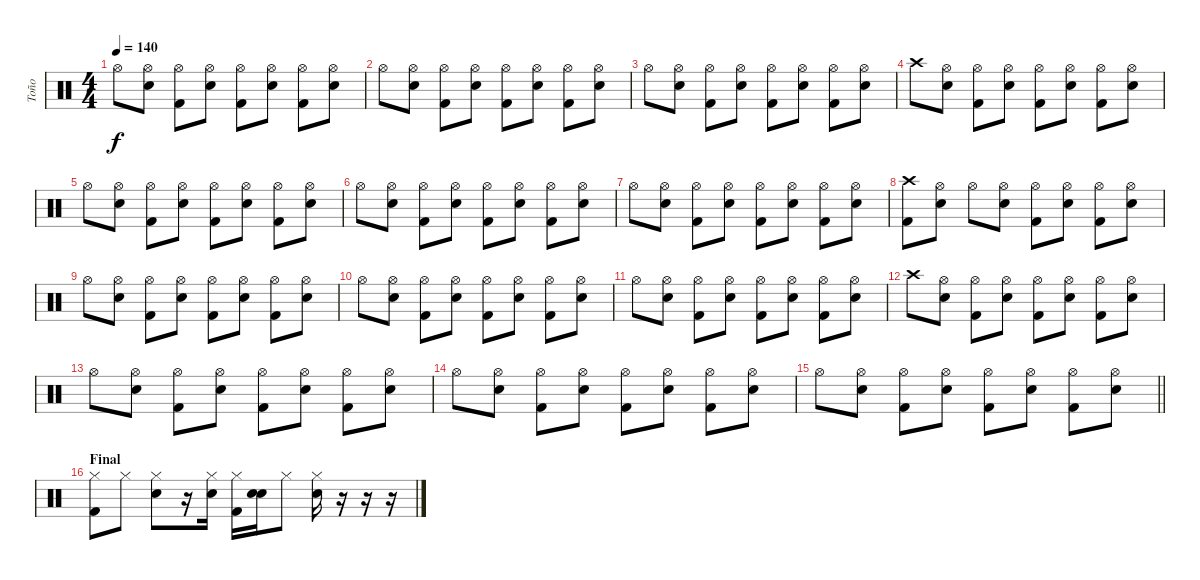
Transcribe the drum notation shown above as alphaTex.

\track ("Toño" "Toño") {instrument percussion}
\staff {score}
\articulation defaults
\ts (4 4)
\tempo 140
\clef neutral
\ks c "Hi-Hat (open)".8{dy f}
("Hi-Hat (open)" "Electric Snare (hit)").8 ("Hi-Hat (open)" "Kick (hit) 2").8 ("Hi-Hat (open)" "Electric Snare (hit)").8 ("Hi-Hat (open)" "Kick (hit) 2").8 ("Hi-Hat (open)" "Electric Snare (hit)").8 ("Hi-Hat (open)" "Kick (hit) 2").8 ("Hi-Hat (open)" "Electric Snare (hit)").8 |
"Hi-Hat (open)".8 ("Hi-Hat (open)" "Electric Snare (hit)").8 ("Hi-Hat (open)" "Kick (hit) 2").8 ("Hi-Hat (open)" "Electric Snare (hit)").8 ("Hi-Hat (open)" "Kick (hit) 2").8 ("Hi-Hat (open)" "Electric Snare (hit)").8 ("Hi-Hat (open)" "Kick (hit) 2").8 ("Hi-Hat (open)" "Electric Snare (hit)").8 |
"Hi-Hat (open)".8 ("Hi-Hat (open)" "Electric Snare (hit)").8 ("Hi-Hat (open)" "Kick (hit) 2").8 ("Hi-Hat (open)" "Electric Snare (hit)").8 ("Hi-Hat (open)" "Kick (hit) 2").8 ("Hi-Hat (open)" "Electric Snare (hit)").8 ("Hi-Hat (open)" "Kick (hit) 2").8 ("Hi-Hat (open)" "Electric Snare (hit)").8 |
"Crash high (hit)".8 ("Hi-Hat (open)" "Electric Snare (hit)").8 ("Hi-Hat (open)" "Kick (hit) 2").8 ("Hi-Hat (open)" "Electric Snare (hit)").8 ("Hi-Hat (open)" "Kick (hit) 2").8 ("Hi-Hat (open)" "Electric Snare (hit)").8 ("Hi-Hat (open)" "Kick (hit) 2").8 ("Hi-Hat (open)" "Electric Snare (hit)").8 |
"Hi-Hat (open)".8 ("Hi-Hat (open)" "Electric Snare (hit)").8 ("Hi-Hat (open)" "Kick (hit) 2").8 ("Hi-Hat (open)" "Electric Snare (hit)").8 ("Hi-Hat (open)" "Kick (hit) 2").8 ("Hi-Hat (open)" "Electric Snare (hit)").8 ("Hi-Hat (open)" "Kick (hit) 2").8 ("Hi-Hat (open)" "Electric Snare (hit)").8 |
"Hi-Hat (open)".8 ("Hi-Hat (open)" "Electric Snare (hit)").8 ("Hi-Hat (open)" "Kick (hit) 2").8 ("Hi-Hat (open)" "Electric Snare (hit)").8 ("Hi-Hat (open)" "Kick (hit) 2").8 ("Hi-Hat (open)" "Electric Snare (hit)").8 ("Hi-Hat (open)" "Kick (hit) 2").8 ("Hi-Hat (open)" "Electric Snare (hit)").8 |
"Hi-Hat (open)".8 ("Hi-Hat (open)" "Electric Snare (hit)").8 ("Hi-Hat (open)" "Kick (hit) 2").8 ("Hi-Hat (open)" "Electric Snare (hit)").8 ("Hi-Hat (open)" "Kick (hit) 2").8 ("Hi-Hat (open)" "Electric Snare (hit)").8 ("Hi-Hat (open)" "Kick (hit) 2").8 ("Hi-Hat (open)" "Electric Snare (hit)").8 |
("Crash high (hit)" "Kick (hit) 2").8 ("Hi-Hat (open)" "Electric Snare (hit)").8 "Hi-Hat (open)".8 ("Hi-Hat (open)" "Electric Snare (hit)").8 ("Hi-Hat (open)" "Kick (hit) 2").8 ("Hi-Hat (open)" "Electric Snare (hit)").8 ("Hi-Hat (open)" "Kick (hit) 2").8 ("Hi-Hat (open)" "Electric Snare (hit)").8 |
"Hi-Hat (open)".8 ("Hi-Hat (open)" "Electric Snare (hit)").8 ("Hi-Hat (open)" "Kick (hit) 2").8 ("Hi-Hat (open)" "Electric Snare (hit)").8 ("Hi-Hat (open)" "Kick (hit) 2").8 ("Hi-Hat (open)" "Electric Snare (hit)").8 ("Hi-Hat (open)" "Kick (hit) 2").8 ("Hi-Hat (open)" "Electric Snare (hit)").8 |
"Hi-Hat (open)".8 ("Hi-Hat (open)" "Electric Snare (hit)").8 ("Hi-Hat (open)" "Kick (hit) 2").8 ("Hi-Hat (open)" "Electric Snare (hit)").8 ("Hi-Hat (open)" "Kick (hit) 2").8 ("Hi-Hat (open)" "Electric Snare (hit)").8 ("Hi-Hat (open)" "Kick (hit) 2").8 ("Hi-Hat (open)" "Electric Snare (hit)").8 |
"Hi-Hat (open)".8 ("Hi-Hat (open)" "Electric Snare (hit)").8 ("Hi-Hat (open)" "Kick (hit) 2").8 ("Hi-Hat (open)" "Electric Snare (hit)").8 ("Hi-Hat (open)" "Kick (hit) 2").8 ("Hi-Hat (open)" "Electric Snare (hit)").8 ("Hi-Hat (open)" "Kick (hit) 2").8 ("Hi-Hat (open)" "Electric Snare (hit)").8 |
"Crash high (hit)".8 ("Hi-Hat (open)" "Electric Snare (hit)").8 ("Hi-Hat (open)" "Kick (hit) 2").8 ("Hi-Hat (open)" "Electric Snare (hit)").8 ("Hi-Hat (open)" "Kick (hit) 2").8 ("Hi-Hat (open)" "Electric Snare (hit)").8 ("Hi-Hat (open)" "Kick (hit) 2").8 ("Hi-Hat (open)" "Electric Snare (hit)").8 |
"Hi-Hat (open)".8 ("Hi-Hat (open)" "Electric Snare (hit)").8 ("Hi-Hat (open)" "Kick (hit) 2").8 ("Hi-Hat (open)" "Electric Snare (hit)").8 ("Hi-Hat (open)" "Kick (hit) 2").8 ("Hi-Hat (open)" "Electric Snare (hit)").8 ("Hi-Hat (open)" "Kick (hit) 2").8 ("Hi-Hat (open)" "Electric Snare (hit)").8 |
"Hi-Hat (open)".8 ("Hi-Hat (open)" "Electric Snare (hit)").8 ("Hi-Hat (open)" "Kick (hit) 2").8 ("Hi-Hat (open)" "Electric Snare (hit)").8 ("Hi-Hat (open)" "Kick (hit) 2").8 ("Hi-Hat (open)" "Electric Snare (hit)").8 ("Hi-Hat (open)" "Kick (hit) 2").8 ("Hi-Hat (open)" "Electric Snare (hit)").8 |
\barLineRight lightlight "Hi-Hat (open)".8
("Hi-Hat (open)" "Electric Snare (hit)").8 ("Hi-Hat (open)" "Kick (hit) 2").8 ("Hi-Hat (open)" "Electric Snare (hit)").8 ("Hi-Hat (open)" "Kick (hit) 2").8 ("Hi-Hat (open)" "Electric Snare (hit)").8 ("Hi-Hat (open)" "Kick (hit) 2").8 ("Hi-Hat (open)" "Electric Snare (hit)").8 |
\section ("" "Final")
("Hi-Hat (closed)" "Kick (hit) 2").8 "Hi-Hat (closed)".8 ("Hi-Hat (closed)" "Electric Snare (hit)").8 r.16 ("Hi-Hat (closed)" "Electric Snare (hit)").16 ("Hi-Hat (closed)" "Kick (hit) 2").16 ("Electric Snare (hit)" "Electric Snare (hit)").16 "Hi-Hat (closed)".8 ("Hi-Hat (closed)" "Electric Snare (hit)").16 r.16 r.16 r.16
